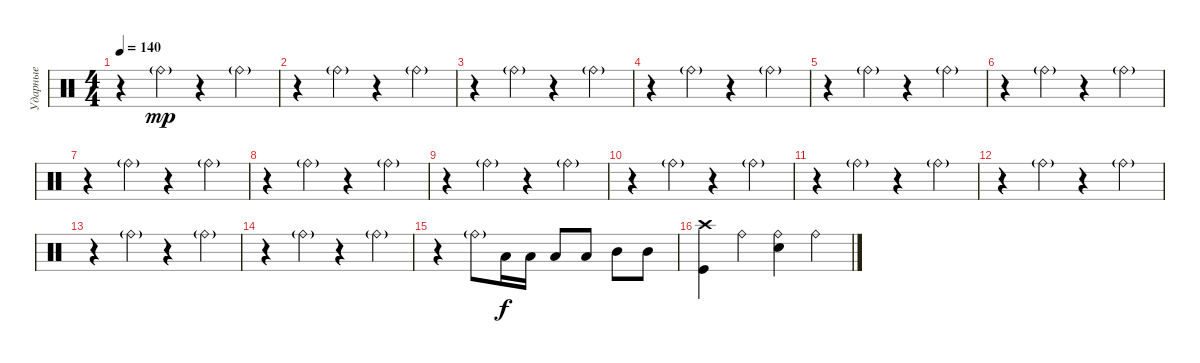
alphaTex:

\track ("Ударные" "Ударные") {instrument percussion}
\staff {score}
\articulation defaults
\ts (4 4)
\tempo 140
\clef neutral
\ks c
r.4{dy mp} "Ride (bell)"{g}.4 r.4 "Ride (bell)"{g}.4 |
r.4 "Ride (bell)"{g}.4 r.4 "Ride (bell)"{g}.4 |
r.4 "Ride (bell)"{g}.4 r.4 "Ride (bell)"{g}.4 |
r.4 "Ride (bell)"{g}.4 r.4 "Ride (bell)"{g}.4 |
r.4 "Ride (bell)"{g}.4 r.4 "Ride (bell)"{g}.4 |
r.4 "Ride (bell)"{g}.4 r.4 "Ride (bell)"{g}.4 |
r.4 "Ride (bell)"{g}.4 r.4 "Ride (bell)"{g}.4 |
r.4 "Ride (bell)"{g}.4 r.4 "Ride (bell)"{g}.4 |
r.4 "Ride (bell)"{g}.4 r.4 "Ride (bell)"{g}.4 |
r.4 "Ride (bell)"{g}.4 r.4 "Ride (bell)"{g}.4 |
r.4 "Ride (bell)"{g}.4 r.4 "Ride (bell)"{g}.4 |
r.4 "Ride (bell)"{g}.4 r.4 "Ride (bell)"{g}.4 |
r.4 "Ride (bell)"{g}.4 r.4 "Ride (bell)"{g}.4 |
r.4 "Ride (bell)"{g}.4 r.4 "Ride (bell)"{g}.4 |
r.4 "Ride (bell)"{g}.8 "Low Tom (hit)".16{dy f} "Low Tom (hit)".16 "Low Tom (hit)".8 "Low Tom (hit)".8 "Mid Tom (hit)".8 "Mid Tom (hit)".8 |
("Crash high (hit)" "Kick (hit)").4 "Ride (bell)".4 ("Ride (bell)" "Electric Snare (hit)").4 "Ride (bell)".4
